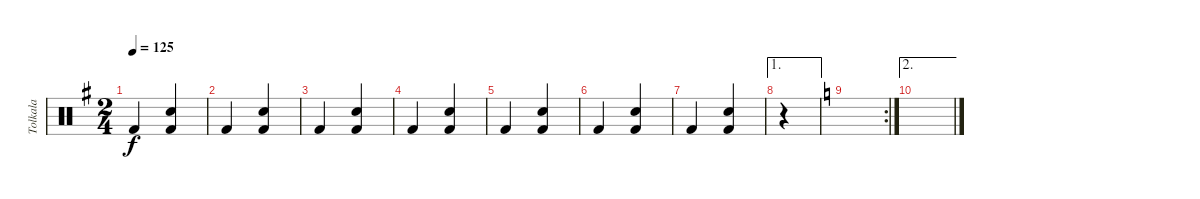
\track ("Tolkala" "Tolkala") {instrument percussion}
\staff {score}
\articulation defaults
\ts (2 4)
\tempo 125
\clef neutral
\ks g "Kick (hit) 2".4{dy f}
("Kick (hit) 2" "Snare (hit) 2").4 |
"Kick (hit) 2".4 ("Kick (hit) 2" "Snare (hit) 2").4 |
"Kick (hit) 2".4 ("Kick (hit) 2" "Snare (hit) 2").4 |
"Kick (hit) 2".4 ("Kick (hit) 2" "Snare (hit) 2").4 |
"Kick (hit) 2".4 ("Kick (hit) 2" "Snare (hit) 2").4 |
"Kick (hit) 2".4 ("Kick (hit) 2" "Snare (hit) 2").4 |
"Kick (hit) 2".4 ("Kick (hit) 2" "Snare (hit) 2").4 |
\ae 1
r.4 |
\rc 2
\ks c
|
\ae 2
